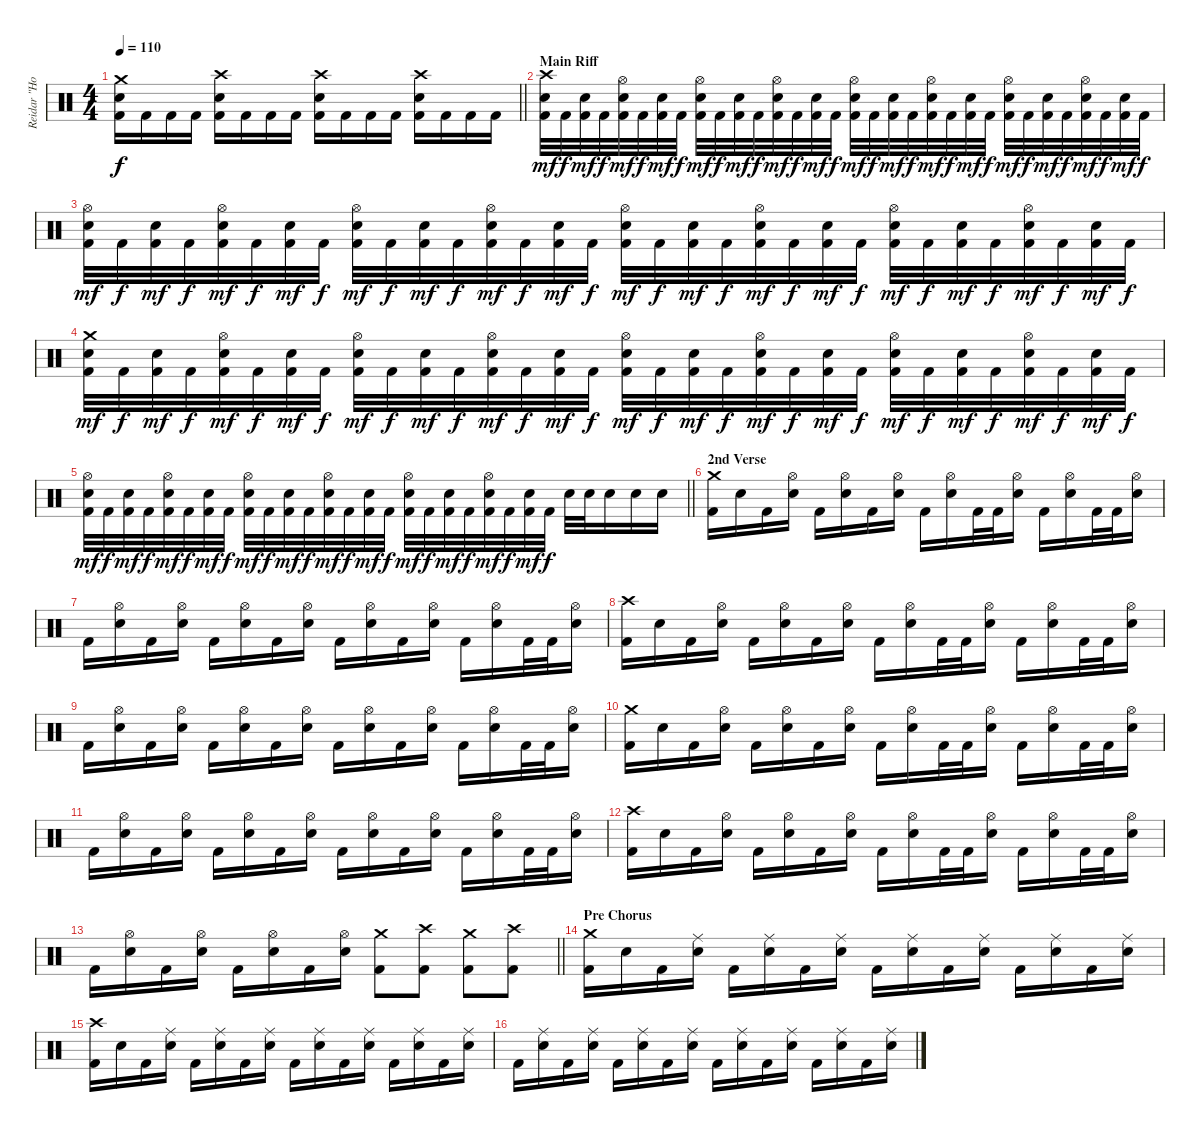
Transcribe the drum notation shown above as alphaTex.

\track ("Reidar \"Horgh\" Horghagen " "Reidar \"Ho") {instrument percussion}
\staff {score}
\articulation defaults
\ts (4 4)
\tempo 110
\clef neutral
\barLineRight lightlight
\ks c
("Crash medium (hit)" "Snare (hit) 2" "Kick (hit) 2").16{dy f} "Kick (hit) 2".16 "Kick (hit) 2".16 "Kick (hit) 2".16 ("Crash high (hit)" "Snare (hit) 2" "Kick (hit) 2").16 "Kick (hit) 2".16 "Kick (hit) 2".16 "Kick (hit) 2".16 ("Crash high (hit)" "Snare (hit) 2" "Kick (hit) 2").16 "Kick (hit) 2".16 "Kick (hit) 2".16 "Kick (hit) 2".16 ("Crash high (hit)" "Snare (hit) 2" "Kick (hit) 2").16 "Kick (hit) 2".16 "Kick (hit) 2".16 "Kick (hit) 2".16 |
\section ("" "Main Riff")
("Crash high (hit)" "Snare (hit) 2" "Kick (hit) 2").32{dy mf} "Kick (hit) 2".32{dy f} ("Snare (hit) 2" "Kick (hit) 2").32{dy mf} "Kick (hit) 2".32{dy f} ("Hi-Hat (open)" "Snare (hit) 2" "Kick (hit) 2").32{dy mf} "Kick (hit) 2".32{dy f} ("Snare (hit) 2" "Kick (hit) 2").32{dy mf} "Kick (hit) 2".32{dy f} ("Hi-Hat (open)" "Snare (hit) 2" "Kick (hit) 2").32{dy mf} "Kick (hit) 2".32{dy f} ("Snare (hit) 2" "Kick (hit) 2").32{dy mf} "Kick (hit) 2".32{dy f} ("Hi-Hat (open)" "Snare (hit) 2" "Kick (hit) 2").32{dy mf} "Kick (hit) 2".32{dy f} ("Snare (hit) 2" "Kick (hit) 2").32{dy mf} "Kick (hit) 2".32{dy f} ("Hi-Hat (open)" "Snare (hit) 2" "Kick (hit) 2").32{dy mf} "Kick (hit) 2".32{dy f} ("Snare (hit) 2" "Kick (hit) 2").32{dy mf} "Kick (hit) 2".32{dy f} ("Hi-Hat (open)" "Snare (hit) 2" "Kick (hit) 2").32{dy mf} "Kick (hit) 2".32{dy f} ("Snare (hit) 2" "Kick (hit) 2").32{dy mf} "Kick (hit) 2".32{dy f} ("Hi-Hat (open)" "Snare (hit) 2" "Kick (hit) 2").32{dy mf} "Kick (hit) 2".32{dy f} ("Snare (hit) 2" "Kick (hit) 2").32{dy mf} "Kick (hit) 2".32{dy f} ("Hi-Hat (open)" "Snare (hit) 2" "Kick (hit) 2").32{dy mf} "Kick (hit) 2".32{dy f} ("Snare (hit) 2" "Kick (hit) 2").32{dy mf} "Kick (hit) 2".32{dy f} |
("Hi-Hat (open)" "Snare (hit) 2" "Kick (hit) 2").32{dy mf} "Kick (hit) 2".32{dy f} ("Snare (hit) 2" "Kick (hit) 2").32{dy mf} "Kick (hit) 2".32{dy f} ("Hi-Hat (open)" "Snare (hit) 2" "Kick (hit) 2").32{dy mf} "Kick (hit) 2".32{dy f} ("Snare (hit) 2" "Kick (hit) 2").32{dy mf} "Kick (hit) 2".32{dy f} ("Hi-Hat (open)" "Snare (hit) 2" "Kick (hit) 2").32{dy mf} "Kick (hit) 2".32{dy f} ("Snare (hit) 2" "Kick (hit) 2").32{dy mf} "Kick (hit) 2".32{dy f} ("Hi-Hat (open)" "Snare (hit) 2" "Kick (hit) 2").32{dy mf} "Kick (hit) 2".32{dy f} ("Snare (hit) 2" "Kick (hit) 2").32{dy mf} "Kick (hit) 2".32{dy f} ("Hi-Hat (open)" "Snare (hit) 2" "Kick (hit) 2").32{dy mf} "Kick (hit) 2".32{dy f} ("Snare (hit) 2" "Kick (hit) 2").32{dy mf} "Kick (hit) 2".32{dy f} ("Hi-Hat (open)" "Snare (hit) 2" "Kick (hit) 2").32{dy mf} "Kick (hit) 2".32{dy f} ("Snare (hit) 2" "Kick (hit) 2").32{dy mf} "Kick (hit) 2".32{dy f} ("Hi-Hat (open)" "Snare (hit) 2" "Kick (hit) 2").32{dy mf} "Kick (hit) 2".32{dy f} ("Snare (hit) 2" "Kick (hit) 2").32{dy mf} "Kick (hit) 2".32{dy f} ("Hi-Hat (open)" "Snare (hit) 2" "Kick (hit) 2").32{dy mf} "Kick (hit) 2".32{dy f} ("Snare (hit) 2" "Kick (hit) 2").32{dy mf} "Kick (hit) 2".32{dy f} |
("Crash medium (hit)" "Snare (hit) 2" "Kick (hit) 2").32{dy mf} "Kick (hit) 2".32{dy f} ("Snare (hit) 2" "Kick (hit) 2").32{dy mf} "Kick (hit) 2".32{dy f} ("Hi-Hat (open)" "Snare (hit) 2" "Kick (hit) 2").32{dy mf} "Kick (hit) 2".32{dy f} ("Snare (hit) 2" "Kick (hit) 2").32{dy mf} "Kick (hit) 2".32{dy f} ("Hi-Hat (open)" "Snare (hit) 2" "Kick (hit) 2").32{dy mf} "Kick (hit) 2".32{dy f} ("Snare (hit) 2" "Kick (hit) 2").32{dy mf} "Kick (hit) 2".32{dy f} ("Hi-Hat (open)" "Snare (hit) 2" "Kick (hit) 2").32{dy mf} "Kick (hit) 2".32{dy f} ("Snare (hit) 2" "Kick (hit) 2").32{dy mf} "Kick (hit) 2".32{dy f} ("Hi-Hat (open)" "Snare (hit) 2" "Kick (hit) 2").32{dy mf} "Kick (hit) 2".32{dy f} ("Snare (hit) 2" "Kick (hit) 2").32{dy mf} "Kick (hit) 2".32{dy f} ("Hi-Hat (open)" "Snare (hit) 2" "Kick (hit) 2").32{dy mf} "Kick (hit) 2".32{dy f} ("Snare (hit) 2" "Kick (hit) 2").32{dy mf} "Kick (hit) 2".32{dy f} ("Hi-Hat (open)" "Snare (hit) 2" "Kick (hit) 2").32{dy mf} "Kick (hit) 2".32{dy f} ("Snare (hit) 2" "Kick (hit) 2").32{dy mf} "Kick (hit) 2".32{dy f} ("Hi-Hat (open)" "Snare (hit) 2" "Kick (hit) 2").32{dy mf} "Kick (hit) 2".32{dy f} ("Snare (hit) 2" "Kick (hit) 2").32{dy mf} "Kick (hit) 2".32{dy f} |
\barLineRight lightlight
("Hi-Hat (open)" "Snare (hit) 2" "Kick (hit) 2").32{dy mf} "Kick (hit) 2".32{dy f} ("Snare (hit) 2" "Kick (hit) 2").32{dy mf} "Kick (hit) 2".32{dy f} ("Hi-Hat (open)" "Snare (hit) 2" "Kick (hit) 2").32{dy mf} "Kick (hit) 2".32{dy f} ("Snare (hit) 2" "Kick (hit) 2").32{dy mf} "Kick (hit) 2".32{dy f} ("Hi-Hat (open)" "Snare (hit) 2" "Kick (hit) 2").32{dy mf} "Kick (hit) 2".32{dy f} ("Snare (hit) 2" "Kick (hit) 2").32{dy mf} "Kick (hit) 2".32{dy f} ("Hi-Hat (open)" "Snare (hit) 2" "Kick (hit) 2").32{dy mf} "Kick (hit) 2".32{dy f} ("Snare (hit) 2" "Kick (hit) 2").32{dy mf} "Kick (hit) 2".32{dy f} ("Hi-Hat (open)" "Snare (hit) 2" "Kick (hit) 2").32{dy mf} "Kick (hit) 2".32{dy f} ("Snare (hit) 2" "Kick (hit) 2").32{dy mf} "Kick (hit) 2".32{dy f} ("Hi-Hat (open)" "Snare (hit) 2" "Kick (hit) 2").32{dy mf} "Kick (hit) 2".32{dy f} ("Snare (hit) 2" "Kick (hit) 2").32{dy mf} "Kick (hit) 2".32{dy f} "Snare (hit) 2".32 "Snare (hit) 2".32 "Snare (hit) 2".16 "Snare (hit) 2".16 "Snare (hit) 2".16 |
\section ("" "2nd Verse")
("Crash medium (hit)" "Kick (hit) 2").16 "Snare (hit) 2".16 "Kick (hit) 2".16 ("Hi-Hat (open)" "Snare (hit) 2").16 "Kick (hit) 2".16 ("Hi-Hat (open)" "Snare (hit) 2").16 "Kick (hit) 2".16 ("Hi-Hat (open)" "Snare (hit) 2").16 "Kick (hit) 2".16 ("Hi-Hat (open)" "Snare (hit) 2").16 "Kick (hit) 2".32 "Kick (hit) 2".32 ("Hi-Hat (open)" "Snare (hit) 2").16 "Kick (hit) 2".16 ("Hi-Hat (open)" "Snare (hit) 2").16 "Kick (hit) 2".32 "Kick (hit) 2".32 ("Hi-Hat (open)" "Snare (hit) 2").16 |
"Kick (hit) 2".16 ("Hi-Hat (open)" "Snare (hit) 2").16 "Kick (hit) 2".16 ("Hi-Hat (open)" "Snare (hit) 2").16 "Kick (hit) 2".16 ("Hi-Hat (open)" "Snare (hit) 2").16 "Kick (hit) 2".16 ("Hi-Hat (open)" "Snare (hit) 2").16 "Kick (hit) 2".16 ("Hi-Hat (open)" "Snare (hit) 2").16 "Kick (hit) 2".16 ("Hi-Hat (open)" "Snare (hit) 2").16 "Kick (hit) 2".16 ("Hi-Hat (open)" "Snare (hit) 2").16 "Kick (hit) 2".32 "Kick (hit) 2".32 ("Hi-Hat (open)" "Snare (hit) 2").16 |
("Crash high (hit)" "Kick (hit) 2").16 "Snare (hit) 2".16 "Kick (hit) 2".16 ("Hi-Hat (open)" "Snare (hit) 2").16 "Kick (hit) 2".16 ("Hi-Hat (open)" "Snare (hit) 2").16 "Kick (hit) 2".16 ("Hi-Hat (open)" "Snare (hit) 2").16 "Kick (hit) 2".16 ("Hi-Hat (open)" "Snare (hit) 2").16 "Kick (hit) 2".32 "Kick (hit) 2".32 ("Hi-Hat (open)" "Snare (hit) 2").16 "Kick (hit) 2".16 ("Hi-Hat (open)" "Snare (hit) 2").16 "Kick (hit) 2".32 "Kick (hit) 2".32 ("Hi-Hat (open)" "Snare (hit) 2").16 |
"Kick (hit) 2".16 ("Hi-Hat (open)" "Snare (hit) 2").16 "Kick (hit) 2".16 ("Hi-Hat (open)" "Snare (hit) 2").16 "Kick (hit) 2".16 ("Hi-Hat (open)" "Snare (hit) 2").16 "Kick (hit) 2".16 ("Hi-Hat (open)" "Snare (hit) 2").16 "Kick (hit) 2".16 ("Hi-Hat (open)" "Snare (hit) 2").16 "Kick (hit) 2".16 ("Hi-Hat (open)" "Snare (hit) 2").16 "Kick (hit) 2".16 ("Hi-Hat (open)" "Snare (hit) 2").16 "Kick (hit) 2".32 "Kick (hit) 2".32 ("Hi-Hat (open)" "Snare (hit) 2").16 |
("Crash medium (hit)" "Kick (hit) 2").16 "Snare (hit) 2".16 "Kick (hit) 2".16 ("Hi-Hat (open)" "Snare (hit) 2").16 "Kick (hit) 2".16 ("Hi-Hat (open)" "Snare (hit) 2").16 "Kick (hit) 2".16 ("Hi-Hat (open)" "Snare (hit) 2").16 "Kick (hit) 2".16 ("Hi-Hat (open)" "Snare (hit) 2").16 "Kick (hit) 2".32 "Kick (hit) 2".32 ("Hi-Hat (open)" "Snare (hit) 2").16 "Kick (hit) 2".16 ("Hi-Hat (open)" "Snare (hit) 2").16 "Kick (hit) 2".32 "Kick (hit) 2".32 ("Hi-Hat (open)" "Snare (hit) 2").16 |
"Kick (hit) 2".16 ("Hi-Hat (open)" "Snare (hit) 2").16 "Kick (hit) 2".16 ("Hi-Hat (open)" "Snare (hit) 2").16 "Kick (hit) 2".16 ("Hi-Hat (open)" "Snare (hit) 2").16 "Kick (hit) 2".16 ("Hi-Hat (open)" "Snare (hit) 2").16 "Kick (hit) 2".16 ("Hi-Hat (open)" "Snare (hit) 2").16 "Kick (hit) 2".16 ("Hi-Hat (open)" "Snare (hit) 2").16 "Kick (hit) 2".16 ("Hi-Hat (open)" "Snare (hit) 2").16 "Kick (hit) 2".32 "Kick (hit) 2".32 ("Hi-Hat (open)" "Snare (hit) 2").16 |
("Crash high (hit)" "Kick (hit) 2").16 "Snare (hit) 2".16 "Kick (hit) 2".16 ("Hi-Hat (open)" "Snare (hit) 2").16 "Kick (hit) 2".16 ("Hi-Hat (open)" "Snare (hit) 2").16 "Kick (hit) 2".16 ("Hi-Hat (open)" "Snare (hit) 2").16 "Kick (hit) 2".16 ("Hi-Hat (open)" "Snare (hit) 2").16 "Kick (hit) 2".32 "Kick (hit) 2".32 ("Hi-Hat (open)" "Snare (hit) 2").16 "Kick (hit) 2".16 ("Hi-Hat (open)" "Snare (hit) 2").16 "Kick (hit) 2".32 "Kick (hit) 2".32 ("Hi-Hat (open)" "Snare (hit) 2").16 |
\barLineRight lightlight "Kick (hit) 2".16
("Hi-Hat (open)" "Snare (hit) 2").16 "Kick (hit) 2".16 ("Hi-Hat (open)" "Snare (hit) 2").16 "Kick (hit) 2".16 ("Hi-Hat (open)" "Snare (hit) 2").16 "Kick (hit) 2".16 ("Hi-Hat (open)" "Snare (hit) 2").16 ("Crash medium (hit)" "Kick (hit) 2").8 ("Crash high (hit)" "Kick (hit) 2").8 ("Crash medium (hit)" "Kick (hit) 2").8 ("Crash high (hit)" "Kick (hit) 2").8 |
\section ("" "Pre Chorus")
("Crash medium (hit)" "Kick (hit) 2").16 "Snare (hit) 2".16 "Kick (hit) 2".16 ("Ride (middle)" "Snare (hit) 2").16 "Kick (hit) 2".16 ("Ride (middle)" "Snare (hit) 2").16 "Kick (hit) 2".16 ("Ride (middle)" "Snare (hit) 2").16 "Kick (hit) 2".16 ("Ride (middle)" "Snare (hit) 2").16 "Kick (hit) 2".16 ("Ride (middle)" "Snare (hit) 2").16 "Kick (hit) 2".16 ("Ride (middle)" "Snare (hit) 2").16 "Kick (hit) 2".16 ("Ride (middle)" "Snare (hit) 2").16 |
("Crash high (hit)" "Kick (hit) 2").16 "Snare (hit) 2".16 "Kick (hit) 2".16 ("Ride (middle)" "Snare (hit) 2").16 "Kick (hit) 2".16 ("Ride (middle)" "Snare (hit) 2").16 "Kick (hit) 2".16 ("Ride (middle)" "Snare (hit) 2").16 "Kick (hit) 2".16 ("Ride (middle)" "Snare (hit) 2").16 "Kick (hit) 2".16 ("Ride (middle)" "Snare (hit) 2").16 "Kick (hit) 2".16 ("Ride (middle)" "Snare (hit) 2").16 "Kick (hit) 2".16 ("Ride (middle)" "Snare (hit) 2").16 |
"Kick (hit) 2".16 ("Ride (middle)" "Snare (hit) 2").16 "Kick (hit) 2".16 ("Ride (middle)" "Snare (hit) 2").16 "Kick (hit) 2".16 ("Ride (middle)" "Snare (hit) 2").16 "Kick (hit) 2".16 ("Ride (middle)" "Snare (hit) 2").16 "Kick (hit) 2".16 ("Ride (middle)" "Snare (hit) 2").16 "Kick (hit) 2".16 ("Ride (middle)" "Snare (hit) 2").16 "Kick (hit) 2".16 ("Ride (middle)" "Snare (hit) 2").16 "Kick (hit) 2".16 ("Ride (middle)" "Snare (hit) 2").16
